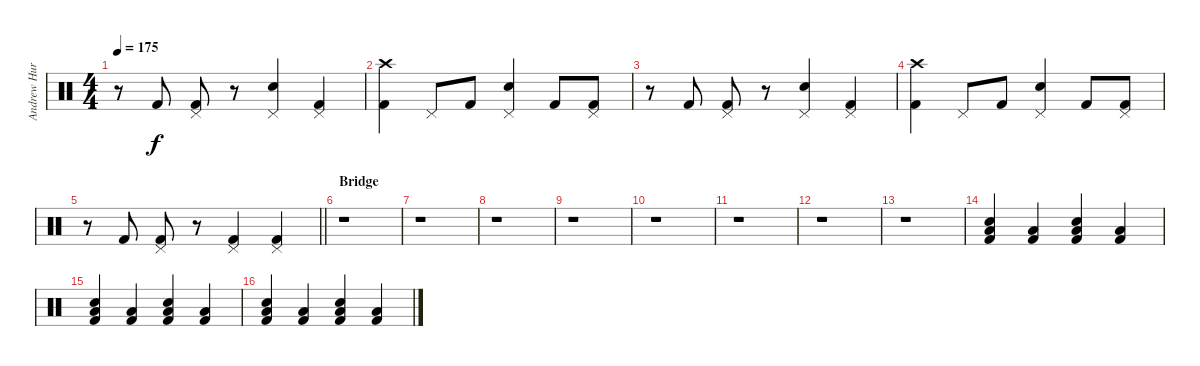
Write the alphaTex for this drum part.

\track ("Andrew Hurley (Drums)" "Andrew Hur") {instrument percussion}
\staff {score}
\articulation defaults
\ts (4 4)
\tempo 175
\clef neutral
\ks c
r.8{dy f} "Kick (hit) 2".8 ("Pedal Hi-Hat (hit)" "Kick (hit) 2").8 r.8 ("Pedal Hi-Hat (hit)" "Snare (hit) 2").4 ("Pedal Hi-Hat (hit)" "Kick (hit) 2").4 |
("Crash high (hit)" "Kick (hit) 2").4 "Pedal Hi-Hat (hit)".8 "Kick (hit) 2".8 ("Pedal Hi-Hat (hit)" "Snare (hit) 2").4 "Kick (hit) 2".8 ("Pedal Hi-Hat (hit)" "Kick (hit) 2").8 |
r.8 "Kick (hit) 2".8 ("Pedal Hi-Hat (hit)" "Kick (hit) 2").8 r.8 ("Pedal Hi-Hat (hit)" "Snare (hit) 2").4 ("Pedal Hi-Hat (hit)" "Kick (hit) 2").4 |
("Crash high (hit)" "Kick (hit) 2").4 "Pedal Hi-Hat (hit)".8 "Kick (hit) 2".8 ("Pedal Hi-Hat (hit)" "Snare (hit) 2").4 "Kick (hit) 2".8 ("Pedal Hi-Hat (hit)" "Kick (hit) 2").8 |
\barLineRight lightlight
r.8 "Kick (hit) 2".8 ("Pedal Hi-Hat (hit)" "Kick (hit) 2").8 r.8 ("Pedal Hi-Hat (hit)" "Kick (hit) 2").4 ("Pedal Hi-Hat (hit)" "Kick (hit) 2").4 |
\section ("" "Bridge")
r.1 |
r.1 |
r.1 |
r.1 |
r.1 |
r.1 |
r.1 |
r.1 |
("Low Floor Tom (hit)" "Snare (hit) 2" "Kick (hit) 2").4 ("Low Floor Tom (hit)" "Kick (hit) 2").4 ("Low Floor Tom (hit)" "Snare (hit) 2" "Kick (hit) 2").4 ("Low Floor Tom (hit)" "Kick (hit) 2").4 |
("Low Floor Tom (hit)" "Snare (hit) 2" "Kick (hit) 2").4 ("Low Floor Tom (hit)" "Kick (hit) 2").4 ("Low Floor Tom (hit)" "Snare (hit) 2" "Kick (hit) 2").4 ("Low Floor Tom (hit)" "Kick (hit) 2").4 |
("Low Floor Tom (hit)" "Snare (hit) 2" "Kick (hit) 2").4 ("Low Floor Tom (hit)" "Kick (hit) 2").4 ("Low Floor Tom (hit)" "Snare (hit) 2" "Kick (hit) 2").4 ("Low Floor Tom (hit)" "Kick (hit) 2").4
